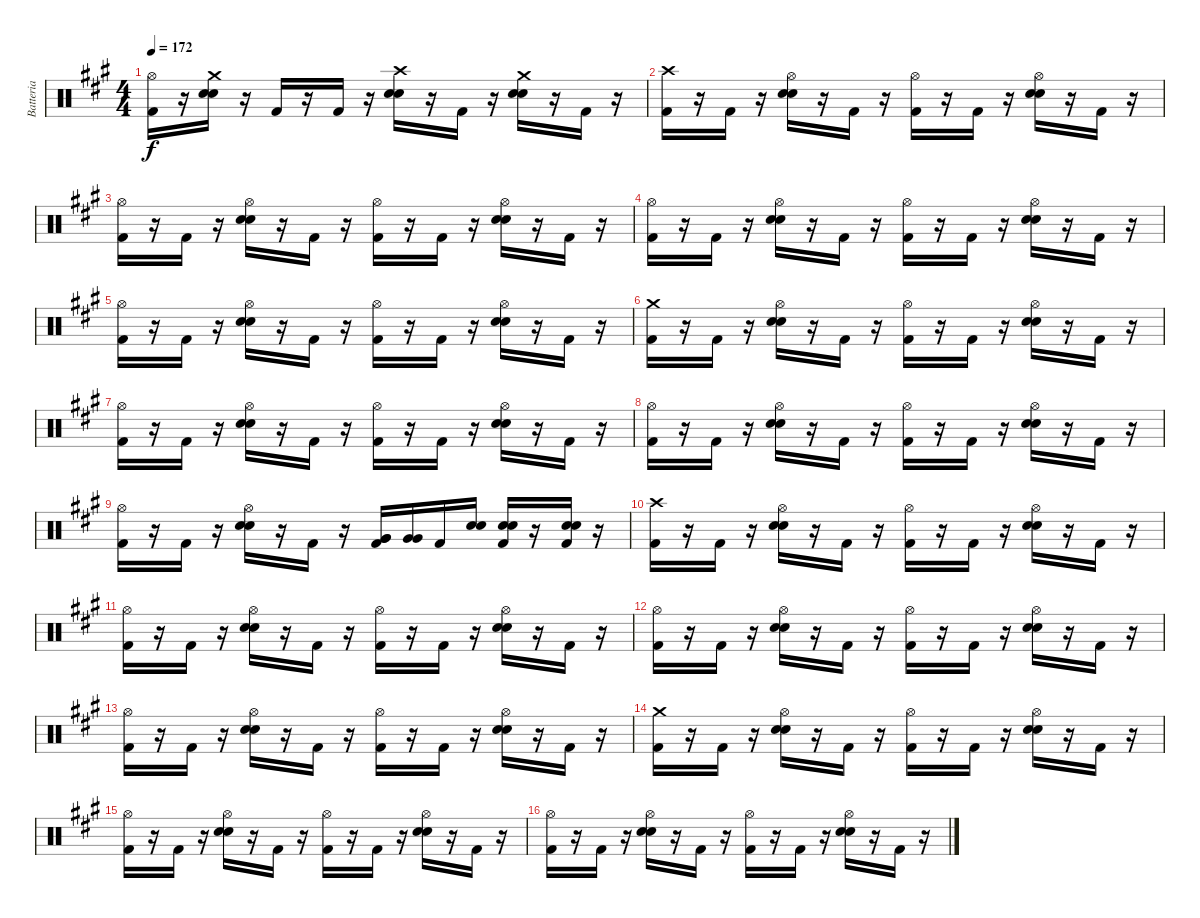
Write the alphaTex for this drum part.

\track ("Batteria" "Batteria") {instrument percussion}
\staff {score}
\articulation defaults
\ts (4 4)
\tempo 172
\clef neutral
\ks a
("Kick (hit) 2" "Hi-Hat (open)").16{dy f} r.16 ("Snare (hit) 2" "Snare (hit) 2" "Crash medium (hit)").16 r.16 "Kick (hit) 2".16 r.16 "Kick (hit) 2".16 r.16 ("Snare (hit) 2" "Snare (hit) 2" "Crash high (hit)").16 r.16 "Kick (hit) 2".16 r.16 ("Snare (hit) 2" "Snare (hit) 2" "Crash medium (hit)").16 r.16 "Kick (hit) 2".16 r.16 |
("Kick (hit) 2" "Crash high (hit)").16 r.16 "Kick (hit) 2".16 r.16 ("Snare (hit) 2" "Snare (hit) 2" "Hi-Hat (open)").16 r.16 "Kick (hit) 2".16 r.16 ("Kick (hit) 2" "Hi-Hat (open)").16 r.16 "Kick (hit) 2".16 r.16 ("Snare (hit) 2" "Snare (hit) 2" "Hi-Hat (open)").16 r.16 "Kick (hit) 2".16 r.16 |
("Kick (hit) 2" "Hi-Hat (open)").16 r.16 "Kick (hit) 2".16 r.16 ("Snare (hit) 2" "Snare (hit) 2" "Hi-Hat (open)").16 r.16 "Kick (hit) 2".16 r.16 ("Kick (hit) 2" "Hi-Hat (open)").16 r.16 "Kick (hit) 2".16 r.16 ("Snare (hit) 2" "Snare (hit) 2" "Hi-Hat (open)").16 r.16 "Kick (hit) 2".16 r.16 |
("Kick (hit) 2" "Hi-Hat (open)").16 r.16 "Kick (hit) 2".16 r.16 ("Snare (hit) 2" "Snare (hit) 2" "Hi-Hat (open)").16 r.16 "Kick (hit) 2".16 r.16 ("Kick (hit) 2" "Hi-Hat (open)").16 r.16 "Kick (hit) 2".16 r.16 ("Snare (hit) 2" "Snare (hit) 2" "Hi-Hat (open)").16 r.16 "Kick (hit) 2".16 r.16 |
("Kick (hit) 2" "Hi-Hat (open)").16 r.16 "Kick (hit) 2".16 r.16 ("Snare (hit) 2" "Snare (hit) 2" "Hi-Hat (open)").16 r.16 "Kick (hit) 2".16 r.16 ("Kick (hit) 2" "Hi-Hat (open)").16 r.16 "Kick (hit) 2".16 r.16 ("Snare (hit) 2" "Snare (hit) 2" "Hi-Hat (open)").16 r.16 "Kick (hit) 2".16 r.16 |
("Kick (hit) 2" "Crash medium (hit)").16 r.16 "Kick (hit) 2".16 r.16 ("Snare (hit) 2" "Snare (hit) 2" "Hi-Hat (open)").16 r.16 "Kick (hit) 2".16 r.16 ("Kick (hit) 2" "Hi-Hat (open)").16 r.16 "Kick (hit) 2".16 r.16 ("Snare (hit) 2" "Snare (hit) 2" "Hi-Hat (open)").16 r.16 "Kick (hit) 2".16 r.16 |
("Kick (hit) 2" "Hi-Hat (open)").16 r.16 "Kick (hit) 2".16 r.16 ("Snare (hit) 2" "Snare (hit) 2" "Hi-Hat (open)").16 r.16 "Kick (hit) 2".16 r.16 ("Kick (hit) 2" "Hi-Hat (open)").16 r.16 "Kick (hit) 2".16 r.16 ("Snare (hit) 2" "Snare (hit) 2" "Hi-Hat (open)").16 r.16 "Kick (hit) 2".16 r.16 |
("Kick (hit) 2" "Hi-Hat (open)").16 r.16 "Kick (hit) 2".16 r.16 ("Snare (hit) 2" "Snare (hit) 2" "Hi-Hat (open)").16 r.16 "Kick (hit) 2".16 r.16 ("Kick (hit) 2" "Hi-Hat (open)").16 r.16 "Kick (hit) 2".16 r.16 ("Snare (hit) 2" "Snare (hit) 2" "Hi-Hat (open)").16 r.16 "Kick (hit) 2".16 r.16 |
("Kick (hit) 2" "Hi-Hat (open)").16 r.16 "Kick (hit) 2".16 r.16 ("Snare (hit) 2" "Snare (hit) 2" "Hi-Hat (open)").16 r.16 "Kick (hit) 2".16 r.16 ("Kick (hit) 2" "Very Low Tom (hit)" "Very Low Tom (hit)").16 ("Very Low Tom (hit)" "Very Low Tom (hit)").16 "Kick (hit) 2".16 ("Snare (hit) 2" "Snare (hit) 2").16 ("Kick (hit) 2" "Snare (hit) 2" "Snare (hit) 2").16 r.16 ("Kick (hit) 2" "Snare (hit) 2" "Snare (hit) 2").16 r.16 |
("Kick (hit) 2" "Crash high (hit)").16 r.16 "Kick (hit) 2".16 r.16 ("Snare (hit) 2" "Snare (hit) 2" "Hi-Hat (open)").16 r.16 "Kick (hit) 2".16 r.16 ("Kick (hit) 2" "Hi-Hat (open)").16 r.16 "Kick (hit) 2".16 r.16 ("Snare (hit) 2" "Snare (hit) 2" "Hi-Hat (open)").16 r.16 "Kick (hit) 2".16 r.16 |
("Kick (hit) 2" "Hi-Hat (open)").16 r.16 "Kick (hit) 2".16 r.16 ("Snare (hit) 2" "Snare (hit) 2" "Hi-Hat (open)").16 r.16 "Kick (hit) 2".16 r.16 ("Kick (hit) 2" "Hi-Hat (open)").16 r.16 "Kick (hit) 2".16 r.16 ("Snare (hit) 2" "Snare (hit) 2" "Hi-Hat (open)").16 r.16 "Kick (hit) 2".16 r.16 |
("Kick (hit) 2" "Hi-Hat (open)").16 r.16 "Kick (hit) 2".16 r.16 ("Snare (hit) 2" "Snare (hit) 2" "Hi-Hat (open)").16 r.16 "Kick (hit) 2".16 r.16 ("Kick (hit) 2" "Hi-Hat (open)").16 r.16 "Kick (hit) 2".16 r.16 ("Snare (hit) 2" "Snare (hit) 2" "Hi-Hat (open)").16 r.16 "Kick (hit) 2".16 r.16 |
("Kick (hit) 2" "Hi-Hat (open)").16 r.16 "Kick (hit) 2".16 r.16 ("Snare (hit) 2" "Snare (hit) 2" "Hi-Hat (open)").16 r.16 "Kick (hit) 2".16 r.16 ("Kick (hit) 2" "Hi-Hat (open)").16 r.16 "Kick (hit) 2".16 r.16 ("Snare (hit) 2" "Snare (hit) 2" "Hi-Hat (open)").16 r.16 "Kick (hit) 2".16 r.16 |
("Kick (hit) 2" "Crash medium (hit)").16 r.16 "Kick (hit) 2".16 r.16 ("Snare (hit) 2" "Snare (hit) 2" "Hi-Hat (open)").16 r.16 "Kick (hit) 2".16 r.16 ("Kick (hit) 2" "Hi-Hat (open)").16 r.16 "Kick (hit) 2".16 r.16 ("Snare (hit) 2" "Snare (hit) 2" "Hi-Hat (open)").16 r.16 "Kick (hit) 2".16 r.16 |
("Kick (hit) 2" "Hi-Hat (open)").16 r.16 "Kick (hit) 2".16 r.16 ("Snare (hit) 2" "Snare (hit) 2" "Hi-Hat (open)").16 r.16 "Kick (hit) 2".16 r.16 ("Kick (hit) 2" "Hi-Hat (open)").16 r.16 "Kick (hit) 2".16 r.16 ("Snare (hit) 2" "Snare (hit) 2" "Hi-Hat (open)").16 r.16 "Kick (hit) 2".16 r.16 |
("Kick (hit) 2" "Hi-Hat (open)").16 r.16 "Kick (hit) 2".16 r.16 ("Snare (hit) 2" "Snare (hit) 2" "Hi-Hat (open)").16 r.16 "Kick (hit) 2".16 r.16 ("Kick (hit) 2" "Hi-Hat (open)").16 r.16 "Kick (hit) 2".16 r.16 ("Snare (hit) 2" "Snare (hit) 2" "Hi-Hat (open)").16 r.16 "Kick (hit) 2".16 r.16
